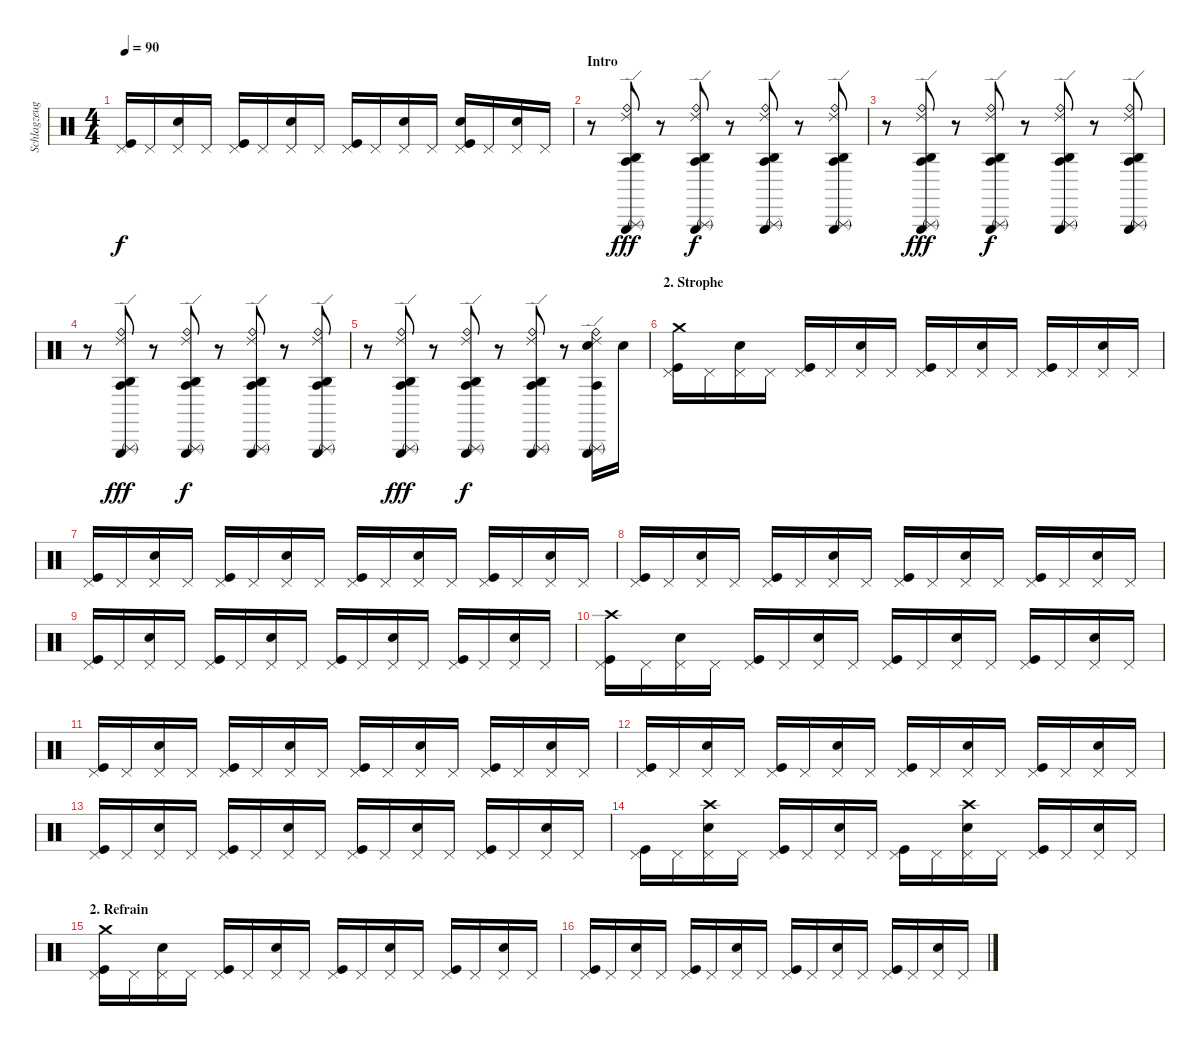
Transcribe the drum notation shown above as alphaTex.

\track ("Schlagzeug" "Schlagzeug") {instrument percussion}
\staff {score}
\articulation defaults
\ts (4 4)
\tempo 90
\clef neutral
\ks c
("Pedal Hi-Hat (hit)" "Kick (hit)").16{dy f} "Pedal Hi-Hat (hit)".16 ("Pedal Hi-Hat (hit)" "Electric Snare (hit)").16 "Pedal Hi-Hat (hit)".16 ("Pedal Hi-Hat (hit)" "Kick (hit)").16 "Pedal Hi-Hat (hit)".16 ("Pedal Hi-Hat (hit)" "Electric Snare (hit)").16 "Pedal Hi-Hat (hit)".16 ("Pedal Hi-Hat (hit)" "Kick (hit)").16 "Pedal Hi-Hat (hit)".16 ("Pedal Hi-Hat (hit)" "Electric Snare (hit)").16 "Pedal Hi-Hat (hit)".16 ("Pedal Hi-Hat (hit)" "Kick (hit)" "Electric Snare (hit)").16 "Pedal Hi-Hat (hit)".16 ("Pedal Hi-Hat (hit)" "Electric Snare (hit)").16 "Pedal Hi-Hat (hit)".16 |
\section ("" "Intro")
r.8 ("Triangle (hit)" "Agogo tow (hit)" "Ride (edge) 2" "Triangle (rnute)" "Ride (bell)" "Agogo high (hit)").8{dy fff} r.8 ("Triangle (hit)" "Agogo tow (hit)" "Ride (edge) 2" "Triangle (rnute)" "Ride (bell)" "Agogo high (hit)").8{dy f} r.8 ("Triangle (hit)" "Agogo tow (hit)" "Ride (edge) 2" "Triangle (rnute)" "Ride (bell)" "Agogo high (hit)").8 r.8 ("Triangle (hit)" "Agogo tow (hit)" "Ride (edge) 2" "Triangle (rnute)" "Ride (bell)" "Agogo high (hit)").8 |
r.8 ("Triangle (hit)" "Agogo tow (hit)" "Ride (edge) 2" "Triangle (rnute)" "Ride (bell)" "Agogo high (hit)").8{dy fff} r.8 ("Triangle (hit)" "Agogo tow (hit)" "Ride (edge) 2" "Triangle (rnute)" "Ride (bell)" "Agogo high (hit)").8{dy f} r.8 ("Triangle (hit)" "Agogo tow (hit)" "Ride (edge) 2" "Triangle (rnute)" "Ride (bell)" "Agogo high (hit)").8 r.8 ("Triangle (hit)" "Agogo tow (hit)" "Ride (edge) 2" "Triangle (rnute)" "Ride (bell)" "Agogo high (hit)").8 |
r.8 ("Triangle (hit)" "Agogo tow (hit)" "Ride (edge) 2" "Triangle (rnute)" "Ride (bell)" "Agogo high (hit)").8{dy fff} r.8 ("Triangle (hit)" "Agogo tow (hit)" "Ride (edge) 2" "Triangle (rnute)" "Ride (bell)" "Agogo high (hit)").8{dy f} r.8 ("Triangle (hit)" "Agogo tow (hit)" "Ride (edge) 2" "Triangle (rnute)" "Ride (bell)" "Agogo high (hit)").8 r.8 ("Triangle (hit)" "Agogo tow (hit)" "Ride (edge) 2" "Triangle (rnute)" "Ride (bell)" "Agogo high (hit)").8 |
r.8 ("Triangle (hit)" "Agogo tow (hit)" "Ride (edge) 2" "Triangle (rnute)" "Ride (bell)" "Agogo high (hit)").8{dy fff} r.8 ("Triangle (hit)" "Agogo tow (hit)" "Ride (edge) 2" "Triangle (rnute)" "Ride (bell)" "Agogo high (hit)").8{dy f} r.8 ("Triangle (hit)" "Agogo tow (hit)" "Ride (edge) 2" "Triangle (rnute)" "Ride (bell)" "Agogo high (hit)").8 r.8 ("Triangle (hit)" "Agogo tow (hit)" "Ride (edge) 2" "Triangle (rnute)" "Ride (bell)" "Electric Snare (hit)").16 "Electric Snare (hit)".16 |
\section ("" "2. Strophe")
("Crash medium (hit)" "Pedal Hi-Hat (hit)" "Kick (hit)").16 "Pedal Hi-Hat (hit)".16 ("Pedal Hi-Hat (hit)" "Electric Snare (hit)").16 "Pedal Hi-Hat (hit)".16 ("Pedal Hi-Hat (hit)" "Kick (hit)").16 "Pedal Hi-Hat (hit)".16 ("Pedal Hi-Hat (hit)" "Electric Snare (hit)").16 "Pedal Hi-Hat (hit)".16 ("Pedal Hi-Hat (hit)" "Kick (hit)").16 "Pedal Hi-Hat (hit)".16 ("Pedal Hi-Hat (hit)" "Electric Snare (hit)").16 "Pedal Hi-Hat (hit)".16 ("Pedal Hi-Hat (hit)" "Kick (hit)").16 "Pedal Hi-Hat (hit)".16 ("Pedal Hi-Hat (hit)" "Electric Snare (hit)").16 "Pedal Hi-Hat (hit)".16 |
("Pedal Hi-Hat (hit)" "Kick (hit)").16 "Pedal Hi-Hat (hit)".16 ("Pedal Hi-Hat (hit)" "Electric Snare (hit)").16 "Pedal Hi-Hat (hit)".16 ("Pedal Hi-Hat (hit)" "Kick (hit)").16 "Pedal Hi-Hat (hit)".16 ("Pedal Hi-Hat (hit)" "Electric Snare (hit)").16 "Pedal Hi-Hat (hit)".16 ("Pedal Hi-Hat (hit)" "Kick (hit)").16 "Pedal Hi-Hat (hit)".16 ("Pedal Hi-Hat (hit)" "Electric Snare (hit)").16 "Pedal Hi-Hat (hit)".16 ("Pedal Hi-Hat (hit)" "Kick (hit)").16 "Pedal Hi-Hat (hit)".16 ("Pedal Hi-Hat (hit)" "Electric Snare (hit)").16 "Pedal Hi-Hat (hit)".16 |
("Pedal Hi-Hat (hit)" "Kick (hit)").16 "Pedal Hi-Hat (hit)".16 ("Pedal Hi-Hat (hit)" "Electric Snare (hit)").16 "Pedal Hi-Hat (hit)".16 ("Pedal Hi-Hat (hit)" "Kick (hit)").16 "Pedal Hi-Hat (hit)".16 ("Pedal Hi-Hat (hit)" "Electric Snare (hit)").16 "Pedal Hi-Hat (hit)".16 ("Pedal Hi-Hat (hit)" "Kick (hit)").16 "Pedal Hi-Hat (hit)".16 ("Pedal Hi-Hat (hit)" "Electric Snare (hit)").16 "Pedal Hi-Hat (hit)".16 ("Pedal Hi-Hat (hit)" "Kick (hit)").16 "Pedal Hi-Hat (hit)".16 ("Pedal Hi-Hat (hit)" "Electric Snare (hit)").16 "Pedal Hi-Hat (hit)".16 |
("Pedal Hi-Hat (hit)" "Kick (hit)").16 "Pedal Hi-Hat (hit)".16 ("Pedal Hi-Hat (hit)" "Electric Snare (hit)").16 "Pedal Hi-Hat (hit)".16 ("Pedal Hi-Hat (hit)" "Kick (hit)").16 "Pedal Hi-Hat (hit)".16 ("Pedal Hi-Hat (hit)" "Electric Snare (hit)").16 "Pedal Hi-Hat (hit)".16 ("Pedal Hi-Hat (hit)" "Kick (hit)").16 "Pedal Hi-Hat (hit)".16 ("Pedal Hi-Hat (hit)" "Electric Snare (hit)").16 "Pedal Hi-Hat (hit)".16 ("Pedal Hi-Hat (hit)" "Kick (hit)").16 "Pedal Hi-Hat (hit)".16 ("Pedal Hi-Hat (hit)" "Electric Snare (hit)").16 "Pedal Hi-Hat (hit)".16 |
("Pedal Hi-Hat (hit)" "Crash high (hit)" "Kick (hit)").16 "Pedal Hi-Hat (hit)".16 ("Pedal Hi-Hat (hit)" "Electric Snare (hit)").16 "Pedal Hi-Hat (hit)".16 ("Pedal Hi-Hat (hit)" "Kick (hit)").16 "Pedal Hi-Hat (hit)".16 ("Pedal Hi-Hat (hit)" "Electric Snare (hit)").16 "Pedal Hi-Hat (hit)".16 ("Pedal Hi-Hat (hit)" "Kick (hit)").16 "Pedal Hi-Hat (hit)".16 ("Pedal Hi-Hat (hit)" "Electric Snare (hit)").16 "Pedal Hi-Hat (hit)".16 ("Pedal Hi-Hat (hit)" "Kick (hit)").16 "Pedal Hi-Hat (hit)".16 ("Pedal Hi-Hat (hit)" "Electric Snare (hit)").16 "Pedal Hi-Hat (hit)".16 |
("Pedal Hi-Hat (hit)" "Kick (hit)").16 "Pedal Hi-Hat (hit)".16 ("Pedal Hi-Hat (hit)" "Electric Snare (hit)").16 "Pedal Hi-Hat (hit)".16 ("Pedal Hi-Hat (hit)" "Kick (hit)").16 "Pedal Hi-Hat (hit)".16 ("Pedal Hi-Hat (hit)" "Electric Snare (hit)").16 "Pedal Hi-Hat (hit)".16 ("Pedal Hi-Hat (hit)" "Kick (hit)").16 "Pedal Hi-Hat (hit)".16 ("Pedal Hi-Hat (hit)" "Electric Snare (hit)").16 "Pedal Hi-Hat (hit)".16 ("Pedal Hi-Hat (hit)" "Kick (hit)").16 "Pedal Hi-Hat (hit)".16 ("Pedal Hi-Hat (hit)" "Electric Snare (hit)").16 "Pedal Hi-Hat (hit)".16 |
("Pedal Hi-Hat (hit)" "Kick (hit)").16 "Pedal Hi-Hat (hit)".16 ("Pedal Hi-Hat (hit)" "Electric Snare (hit)").16 "Pedal Hi-Hat (hit)".16 ("Pedal Hi-Hat (hit)" "Kick (hit)").16 "Pedal Hi-Hat (hit)".16 ("Pedal Hi-Hat (hit)" "Electric Snare (hit)").16 "Pedal Hi-Hat (hit)".16 ("Pedal Hi-Hat (hit)" "Kick (hit)").16 "Pedal Hi-Hat (hit)".16 ("Pedal Hi-Hat (hit)" "Electric Snare (hit)").16 "Pedal Hi-Hat (hit)".16 ("Pedal Hi-Hat (hit)" "Kick (hit)").16 "Pedal Hi-Hat (hit)".16 ("Pedal Hi-Hat (hit)" "Electric Snare (hit)").16 "Pedal Hi-Hat (hit)".16 |
("Pedal Hi-Hat (hit)" "Kick (hit)").16 "Pedal Hi-Hat (hit)".16 ("Pedal Hi-Hat (hit)" "Electric Snare (hit)").16 "Pedal Hi-Hat (hit)".16 ("Pedal Hi-Hat (hit)" "Kick (hit)").16 "Pedal Hi-Hat (hit)".16 ("Pedal Hi-Hat (hit)" "Electric Snare (hit)").16 "Pedal Hi-Hat (hit)".16 ("Pedal Hi-Hat (hit)" "Kick (hit)").16 "Pedal Hi-Hat (hit)".16 ("Pedal Hi-Hat (hit)" "Electric Snare (hit)").16 "Pedal Hi-Hat (hit)".16 ("Pedal Hi-Hat (hit)" "Kick (hit)").16 "Pedal Hi-Hat (hit)".16 ("Pedal Hi-Hat (hit)" "Electric Snare (hit)").16 "Pedal Hi-Hat (hit)".16 |
("Pedal Hi-Hat (hit)" "Kick (hit)").16 "Pedal Hi-Hat (hit)".16 ("Pedal Hi-Hat (hit)" "Electric Snare (hit)" "Crash high (hit)").16 "Pedal Hi-Hat (hit)".16 ("Pedal Hi-Hat (hit)" "Kick (hit)").16 "Pedal Hi-Hat (hit)".16 ("Pedal Hi-Hat (hit)" "Electric Snare (hit)").16 "Pedal Hi-Hat (hit)".16 ("Pedal Hi-Hat (hit)" "Kick (hit)").16 "Pedal Hi-Hat (hit)".16 ("Pedal Hi-Hat (hit)" "Electric Snare (hit)" "Crash high (hit)").16 "Pedal Hi-Hat (hit)".16 ("Pedal Hi-Hat (hit)" "Kick (hit)").16 "Pedal Hi-Hat (hit)".16 ("Pedal Hi-Hat (hit)" "Electric Snare (hit)").16 "Pedal Hi-Hat (hit)".16 |
\section ("" "2. Refrain")
("Pedal Hi-Hat (hit)" "Kick (hit)" "Crash medium (hit)").16 "Pedal Hi-Hat (hit)".16 ("Pedal Hi-Hat (hit)" "Electric Snare (hit)").16 "Pedal Hi-Hat (hit)".16 ("Pedal Hi-Hat (hit)" "Kick (hit)").16 "Pedal Hi-Hat (hit)".16 ("Pedal Hi-Hat (hit)" "Electric Snare (hit)").16 "Pedal Hi-Hat (hit)".16 ("Pedal Hi-Hat (hit)" "Kick (hit)").16 "Pedal Hi-Hat (hit)".16 ("Pedal Hi-Hat (hit)" "Electric Snare (hit)").16 "Pedal Hi-Hat (hit)".16 ("Pedal Hi-Hat (hit)" "Kick (hit)").16 "Pedal Hi-Hat (hit)".16 ("Pedal Hi-Hat (hit)" "Electric Snare (hit)").16 "Pedal Hi-Hat (hit)".16 |
("Pedal Hi-Hat (hit)" "Kick (hit)").16 "Pedal Hi-Hat (hit)".16 ("Pedal Hi-Hat (hit)" "Electric Snare (hit)").16 "Pedal Hi-Hat (hit)".16 ("Pedal Hi-Hat (hit)" "Kick (hit)").16 "Pedal Hi-Hat (hit)".16 ("Pedal Hi-Hat (hit)" "Electric Snare (hit)").16 "Pedal Hi-Hat (hit)".16 ("Pedal Hi-Hat (hit)" "Kick (hit)").16 "Pedal Hi-Hat (hit)".16 ("Pedal Hi-Hat (hit)" "Electric Snare (hit)").16 "Pedal Hi-Hat (hit)".16 ("Pedal Hi-Hat (hit)" "Kick (hit)").16 "Pedal Hi-Hat (hit)".16 ("Pedal Hi-Hat (hit)" "Electric Snare (hit)").16 "Pedal Hi-Hat (hit)".16
